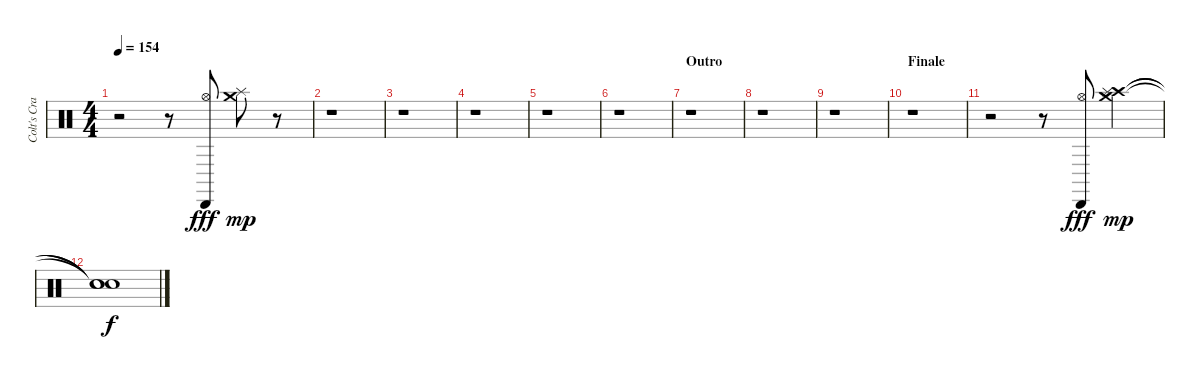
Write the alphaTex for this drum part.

\track ("Colt's Cracking Whip!" "Colt's Cra") {instrument percussion}
\staff {score}
\articulation defaults
\ts (4 4)
\tempo 154
\clef neutral
\ks c
r.2{dy mp} r.8 ("Hi-Hat (open)" "Cabasa (hit)").8{dy fff} ("Crash medium (hit)" "Splash (hit)").8{dy mp} r.8 |
r.1 |
r.1 |
r.1 |
r.1 |
r.1 |
\section ("" "Outro")
r.1 |
r.1 |
r.1 |
\section ("" "Finale")
r.1 |
r.2 r.8 ("Hi-Hat (open)" "Cabasa (hit)").8{dy fff} ("Crash high (hit)" "Crash medium (hit)" "Splash (hit)").4{dy mp} |
("Snare (hit)"{t} "Snare (hit)"{t} "Snare (hit)"{t}).1{dy f volume 0}
